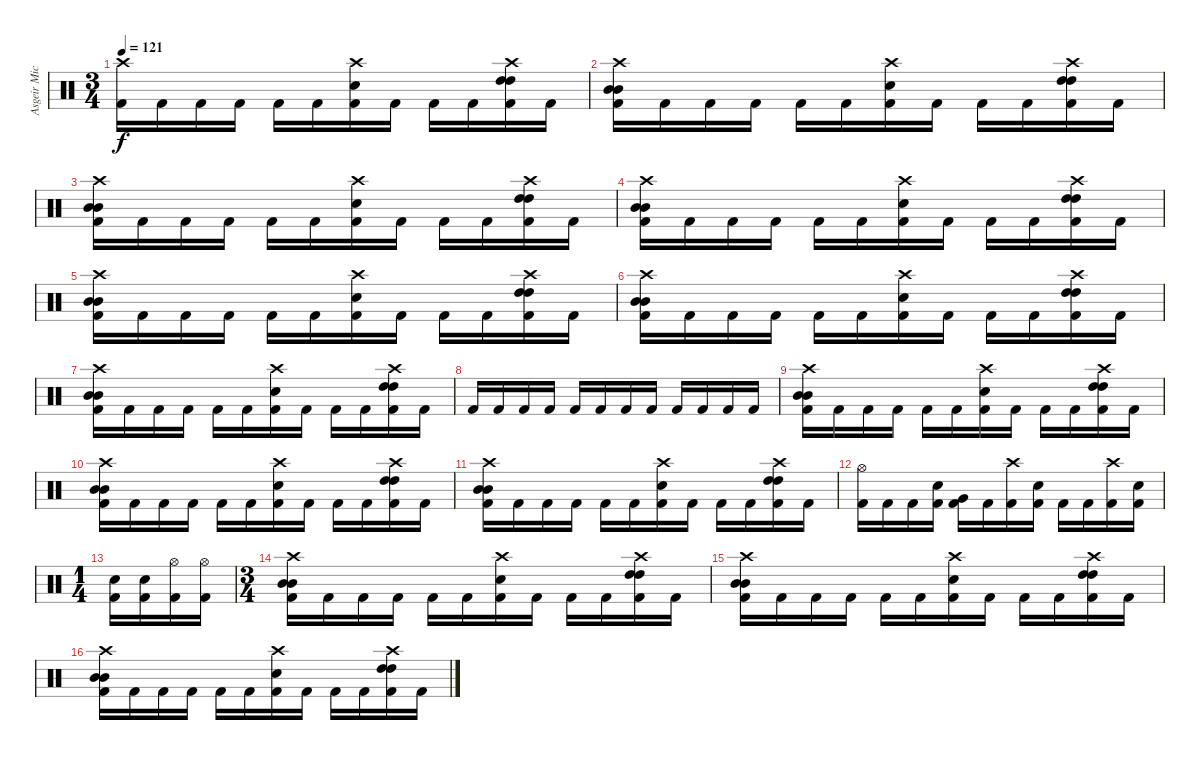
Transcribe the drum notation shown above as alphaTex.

\track ("Asgeir Mickelson" "Asgeir Mic") {instrument percussion}
\staff {score}
\articulation defaults
\ts (3 4)
\tempo 121
\clef neutral
\ks c
("Crash high (hit)" "Kick (hit) 2").16{dy f} "Kick (hit) 2".16 "Kick (hit) 2".16 "Kick (hit) 2".16 "Kick (hit) 2".16 "Kick (hit) 2".16 ("Crash high (hit)" "Electric Snare (hit)" "Kick (hit) 2").16 "Kick (hit) 2".16 "Kick (hit) 2".16 "Kick (hit) 2".16 ("Crash high (hit)" "High Tom (hit)" "High Tom (hit)" "Kick (hit) 2").16 "Kick (hit) 2".16 |
("Crash high (hit)" "Mid Tom (hit)" "Mid Tom (hit)" "Kick (hit) 2").16 "Kick (hit) 2".16 "Kick (hit) 2".16 "Kick (hit) 2".16 "Kick (hit) 2".16 "Kick (hit) 2".16 ("Crash high (hit)" "Electric Snare (hit)" "Kick (hit) 2").16 "Kick (hit) 2".16 "Kick (hit) 2".16 "Kick (hit) 2".16 ("Crash high (hit)" "High Tom (hit)" "High Tom (hit)" "Kick (hit) 2").16 "Kick (hit) 2".16 |
("Crash high (hit)" "Mid Tom (hit)" "Mid Tom (hit)" "Kick (hit) 2").16 "Kick (hit) 2".16 "Kick (hit) 2".16 "Kick (hit) 2".16 "Kick (hit) 2".16 "Kick (hit) 2".16 ("Crash high (hit)" "Electric Snare (hit)" "Kick (hit) 2").16 "Kick (hit) 2".16 "Kick (hit) 2".16 "Kick (hit) 2".16 ("Crash high (hit)" "High Tom (hit)" "High Tom (hit)" "Kick (hit) 2").16 "Kick (hit) 2".16 |
("Crash high (hit)" "Mid Tom (hit)" "Mid Tom (hit)" "Kick (hit) 2").16 "Kick (hit) 2".16 "Kick (hit) 2".16 "Kick (hit) 2".16 "Kick (hit) 2".16 "Kick (hit) 2".16 ("Crash high (hit)" "Electric Snare (hit)" "Kick (hit) 2").16 "Kick (hit) 2".16 "Kick (hit) 2".16 "Kick (hit) 2".16 ("Crash high (hit)" "High Tom (hit)" "High Tom (hit)" "Kick (hit) 2").16 "Kick (hit) 2".16 |
("Crash high (hit)" "Mid Tom (hit)" "Mid Tom (hit)" "Kick (hit) 2").16 "Kick (hit) 2".16 "Kick (hit) 2".16 "Kick (hit) 2".16 "Kick (hit) 2".16 "Kick (hit) 2".16 ("Crash high (hit)" "Electric Snare (hit)" "Kick (hit) 2").16 "Kick (hit) 2".16 "Kick (hit) 2".16 "Kick (hit) 2".16 ("Crash high (hit)" "High Tom (hit)" "High Tom (hit)" "Kick (hit) 2").16 "Kick (hit) 2".16 |
("Crash high (hit)" "Mid Tom (hit)" "Mid Tom (hit)" "Kick (hit) 2").16 "Kick (hit) 2".16 "Kick (hit) 2".16 "Kick (hit) 2".16 "Kick (hit) 2".16 "Kick (hit) 2".16 ("Crash high (hit)" "Electric Snare (hit)" "Kick (hit) 2").16 "Kick (hit) 2".16 "Kick (hit) 2".16 "Kick (hit) 2".16 ("Crash high (hit)" "High Tom (hit)" "High Tom (hit)" "Kick (hit) 2").16 "Kick (hit) 2".16 |
("Crash high (hit)" "Mid Tom (hit)" "Mid Tom (hit)" "Kick (hit) 2").16 "Kick (hit) 2".16 "Kick (hit) 2".16 "Kick (hit) 2".16 "Kick (hit) 2".16 "Kick (hit) 2".16 ("Crash high (hit)" "Electric Snare (hit)" "Kick (hit) 2").16 "Kick (hit) 2".16 "Kick (hit) 2".16 "Kick (hit) 2".16 ("Crash high (hit)" "High Tom (hit)" "High Tom (hit)" "Kick (hit) 2").16 "Kick (hit) 2".16 |
"Kick (hit) 2".16 "Kick (hit) 2".16 "Kick (hit) 2".16 "Kick (hit) 2".16 "Kick (hit) 2".16 "Kick (hit) 2".16 "Kick (hit) 2".16 "Kick (hit) 2".16 "Kick (hit) 2".16 "Kick (hit) 2".16 "Kick (hit) 2".16 "Kick (hit) 2".16 |
("Crash high (hit)" "Mid Tom (hit)" "Mid Tom (hit)" "Kick (hit) 2").16 "Kick (hit) 2".16 "Kick (hit) 2".16 "Kick (hit) 2".16 "Kick (hit) 2".16 "Kick (hit) 2".16 ("Crash high (hit)" "Electric Snare (hit)" "Kick (hit) 2").16 "Kick (hit) 2".16 "Kick (hit) 2".16 "Kick (hit) 2".16 ("Crash high (hit)" "High Tom (hit)" "High Tom (hit)" "Kick (hit) 2").16 "Kick (hit) 2".16 |
("Crash high (hit)" "Mid Tom (hit)" "Mid Tom (hit)" "Kick (hit) 2").16 "Kick (hit) 2".16 "Kick (hit) 2".16 "Kick (hit) 2".16 "Kick (hit) 2".16 "Kick (hit) 2".16 ("Crash high (hit)" "Electric Snare (hit)" "Kick (hit) 2").16 "Kick (hit) 2".16 "Kick (hit) 2".16 "Kick (hit) 2".16 ("Crash high (hit)" "High Tom (hit)" "High Tom (hit)" "Kick (hit) 2").16 "Kick (hit) 2".16 |
("Crash high (hit)" "Mid Tom (hit)" "Mid Tom (hit)" "Kick (hit) 2").16 "Kick (hit) 2".16 "Kick (hit) 2".16 "Kick (hit) 2".16 "Kick (hit) 2".16 "Kick (hit) 2".16 ("Crash high (hit)" "Electric Snare (hit)" "Kick (hit) 2").16 "Kick (hit) 2".16 "Kick (hit) 2".16 "Kick (hit) 2".16 ("Crash high (hit)" "High Tom (hit)" "High Tom (hit)" "Kick (hit) 2").16 "Kick (hit) 2".16 |
("Hi-Hat (open)" "Kick (hit) 2").16 "Kick (hit) 2".16 "Kick (hit) 2".16 ("Electric Snare (hit)" "Kick (hit) 2").16 ("Very Low Tom (hit)" "Kick (hit) 2").16 "Kick (hit) 2".16 ("Crash high (hit)" "Kick (hit) 2").16 ("Electric Snare (hit)" "Kick (hit) 2").16 "Kick (hit) 2".16 "Kick (hit) 2".16 ("Crash high (hit)" "Kick (hit) 2").16 ("Electric Snare (hit)" "Kick (hit) 2").16 |
\ts (1 4)
("Electric Snare (hit)" "Kick (hit) 2").16 ("Electric Snare (hit)" "Kick (hit) 2").16 ("Hi-Hat (open)" "Kick (hit) 2").16 ("Hi-Hat (open)" "Kick (hit) 2").16 |
\ts (3 4)
("Crash high (hit)" "Mid Tom (hit)" "Mid Tom (hit)" "Kick (hit) 2").16 "Kick (hit) 2".16 "Kick (hit) 2".16 "Kick (hit) 2".16 "Kick (hit) 2".16 "Kick (hit) 2".16 ("Crash high (hit)" "Electric Snare (hit)" "Kick (hit) 2").16 "Kick (hit) 2".16 "Kick (hit) 2".16 "Kick (hit) 2".16 ("Crash high (hit)" "High Tom (hit)" "High Tom (hit)" "Kick (hit) 2").16 "Kick (hit) 2".16 |
("Crash high (hit)" "Mid Tom (hit)" "Mid Tom (hit)" "Kick (hit) 2").16 "Kick (hit) 2".16 "Kick (hit) 2".16 "Kick (hit) 2".16 "Kick (hit) 2".16 "Kick (hit) 2".16 ("Crash high (hit)" "Electric Snare (hit)" "Kick (hit) 2").16 "Kick (hit) 2".16 "Kick (hit) 2".16 "Kick (hit) 2".16 ("Crash high (hit)" "High Tom (hit)" "High Tom (hit)" "Kick (hit) 2").16 "Kick (hit) 2".16 |
("Crash high (hit)" "Mid Tom (hit)" "Mid Tom (hit)" "Kick (hit) 2").16 "Kick (hit) 2".16 "Kick (hit) 2".16 "Kick (hit) 2".16 "Kick (hit) 2".16 "Kick (hit) 2".16 ("Crash high (hit)" "Electric Snare (hit)" "Kick (hit) 2").16 "Kick (hit) 2".16 "Kick (hit) 2".16 "Kick (hit) 2".16 ("Crash high (hit)" "High Tom (hit)" "High Tom (hit)" "Kick (hit) 2").16 "Kick (hit) 2".16
